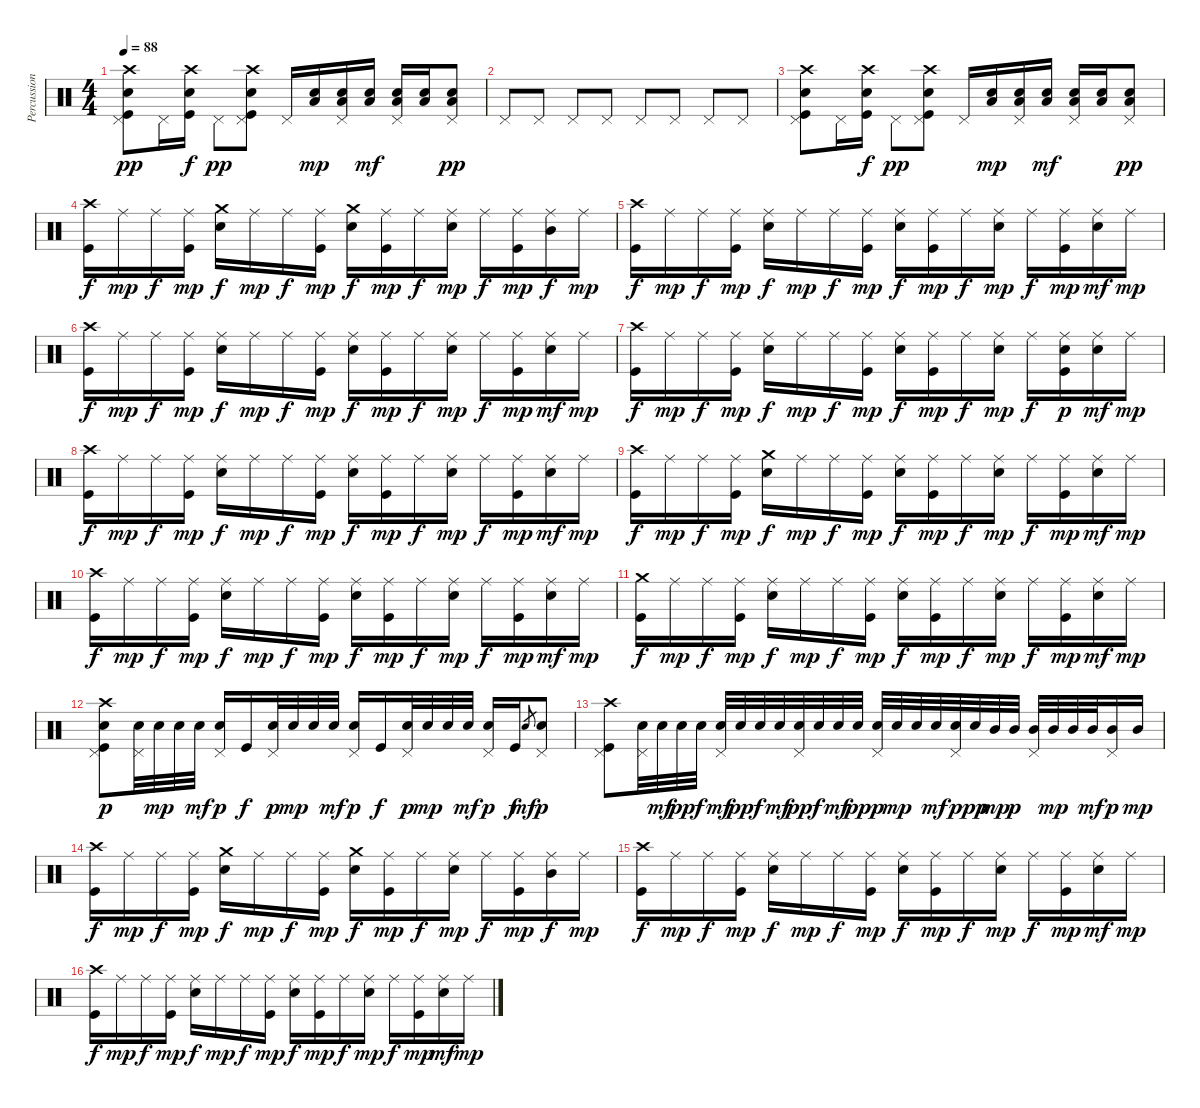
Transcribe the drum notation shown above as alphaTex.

\track ("Percussion" "Percussion") {instrument percussion}
\staff {score}
\articulation defaults
\ts (4 4)
\tempo 88
\clef neutral
\ks c
("Crash high (hit)" "Pedal Hi-Hat (hit)" "Snare (hit) 2" "Kick (hit)").8{dy pp} "Pedal Hi-Hat (hit)".16 ("Crash high (hit)" "Snare (hit) 2" "Kick (hit)").16{dy f} "Pedal Hi-Hat (hit)".8{dy pp} ("Crash high (hit)" "Pedal Hi-Hat (hit)" "Snare (hit) 2" "Kick (hit)").8 "Pedal Hi-Hat (hit)".16 ("Low Tom (hit)" "Snare (hit) 2").16{dy mp} ("Pedal Hi-Hat (hit)" "Low Tom (hit)" "Snare (hit) 2").16 ("Low Tom (hit)" "Snare (hit) 2").16{dy mf} ("Pedal Hi-Hat (hit)" "Low Tom (hit)" "Snare (hit) 2").16 ("Low Tom (hit)" "Snare (hit) 2").16 ("Pedal Hi-Hat (hit)" "Low Tom (hit)" "Snare (hit) 2").8{dy pp} |
"Pedal Hi-Hat (hit)".8 "Pedal Hi-Hat (hit)".8 "Pedal Hi-Hat (hit)".8 "Pedal Hi-Hat (hit)".8 "Pedal Hi-Hat (hit)".8 "Pedal Hi-Hat (hit)".8 "Pedal Hi-Hat (hit)".8 "Pedal Hi-Hat (hit)".8 |
("Crash high (hit)" "Pedal Hi-Hat (hit)" "Snare (hit) 2" "Kick (hit)").8 "Pedal Hi-Hat (hit)".16 ("Crash high (hit)" "Snare (hit) 2" "Kick (hit)").16{dy f} "Pedal Hi-Hat (hit)".8{dy pp} ("Crash high (hit)" "Pedal Hi-Hat (hit)" "Snare (hit) 2" "Kick (hit)").8 "Pedal Hi-Hat (hit)".16 ("Low Tom (hit)" "Snare (hit) 2").16{dy mp} ("Pedal Hi-Hat (hit)" "Low Tom (hit)" "Snare (hit) 2").16 ("Low Tom (hit)" "Snare (hit) 2").16{dy mf} ("Pedal Hi-Hat (hit)" "Low Tom (hit)" "Snare (hit) 2").16 ("Low Tom (hit)" "Snare (hit) 2").16 ("Pedal Hi-Hat (hit)" "Low Tom (hit)" "Snare (hit) 2").8{dy pp} |
("Crash high (hit)" "Kick (hit)").16{dy f} "Ride (middle)".16{dy mp} "Ride (middle)".16{dy f} ("Ride (middle)" "Kick (hit)").16{dy mp} ("Crash medium (hit)" "Snare (hit) 2").16{dy f} "Ride (middle)".16{dy mp} "Ride (middle)".16{dy f} ("Ride (middle)" "Kick (hit)").16{dy mp} ("Crash medium (hit)" "Snare (hit) 2").16{dy f} ("Ride (middle)" "Kick (hit)").16{dy mp} "Ride (middle)".16{dy f} ("Ride (middle)" "Snare (hit) 2").16{dy mp} "Ride (middle)".16{dy f} ("Ride (middle)" "Kick (hit)").16{dy mp} ("Ride (middle)" "Mid Tom (hit)").16{dy f} "Ride (middle)".16{dy mp} |
("Crash high (hit)" "Kick (hit)").16{dy f} "Ride (middle)".16{dy mp} "Ride (middle)".16{dy f} ("Ride (middle)" "Kick (hit)").16{dy mp} ("Ride (middle)" "Snare (hit) 2").16{dy f} "Ride (middle)".16{dy mp} "Ride (middle)".16{dy f} ("Ride (middle)" "Kick (hit)").16{dy mp} ("Ride (middle)" "Snare (hit) 2").16{dy f} ("Ride (middle)" "Kick (hit)").16{dy mp} "Ride (middle)".16{dy f} ("Ride (middle)" "Snare (hit) 2").16{dy mp} "Ride (middle)".16{dy f} ("Ride (middle)" "Kick (hit)").16{dy mp} ("Ride (middle)" "Snare (hit) 2").16{dy mf} "Ride (middle)".16{dy mp} |
("Crash high (hit)" "Kick (hit)").16{dy f} "Ride (middle)".16{dy mp} "Ride (middle)".16{dy f} ("Ride (middle)" "Kick (hit)").16{dy mp} ("Ride (middle)" "Snare (hit) 2").16{dy f} "Ride (middle)".16{dy mp} "Ride (middle)".16{dy f} ("Ride (middle)" "Kick (hit)").16{dy mp} ("Ride (middle)" "Snare (hit) 2").16{dy f} ("Ride (middle)" "Kick (hit)").16{dy mp} "Ride (middle)".16{dy f} ("Ride (middle)" "Snare (hit) 2").16{dy mp} "Ride (middle)".16{dy f} ("Ride (middle)" "Kick (hit)").16{dy mp} ("Ride (middle)" "Snare (hit) 2").16{dy mf} "Ride (middle)".16{dy mp} |
("Crash high (hit)" "Kick (hit)").16{dy f} "Ride (middle)".16{dy mp} "Ride (middle)".16{dy f} ("Ride (middle)" "Kick (hit)").16{dy mp} ("Ride (middle)" "Snare (hit) 2").16{dy f} "Ride (middle)".16{dy mp} "Ride (middle)".16{dy f} ("Ride (middle)" "Kick (hit)").16{dy mp} ("Ride (middle)" "Snare (hit) 2").16{dy f} ("Ride (middle)" "Kick (hit)").16{dy mp} "Ride (middle)".16{dy f} ("Ride (middle)" "Snare (hit) 2").16{dy mp} "Ride (middle)".16{dy f} ("Ride (middle)" "Snare (hit) 2" "Kick (hit)").16{dy p} ("Ride (middle)" "Snare (hit) 2").16{dy mf} "Ride (middle)".16{dy mp} |
("Crash high (hit)" "Kick (hit)").16{dy f} "Ride (middle)".16{dy mp} "Ride (middle)".16{dy f} ("Ride (middle)" "Kick (hit)").16{dy mp} ("Ride (middle)" "Snare (hit) 2").16{dy f} "Ride (middle)".16{dy mp} "Ride (middle)".16{dy f} ("Ride (middle)" "Kick (hit)").16{dy mp} ("Ride (middle)" "Snare (hit) 2").16{dy f} ("Ride (middle)" "Kick (hit)").16{dy mp} "Ride (middle)".16{dy f} ("Ride (middle)" "Snare (hit) 2").16{dy mp} "Ride (middle)".16{dy f} ("Ride (middle)" "Kick (hit)").16{dy mp} ("Ride (middle)" "Snare (hit) 2").16{dy mf} "Ride (middle)".16{dy mp} |
("Crash high (hit)" "Kick (hit)").16{dy f} "Ride (middle)".16{dy mp} "Ride (middle)".16{dy f} ("Ride (middle)" "Kick (hit)").16{dy mp} ("Crash medium (hit)" "Snare (hit) 2").16{dy f} "Ride (middle)".16{dy mp} "Ride (middle)".16{dy f} ("Ride (middle)" "Kick (hit)").16{dy mp} ("Ride (middle)" "Snare (hit) 2").16{dy f} ("Ride (middle)" "Kick (hit)").16{dy mp} "Ride (middle)".16{dy f} ("Ride (middle)" "Snare (hit) 2").16{dy mp} "Ride (middle)".16{dy f} ("Ride (middle)" "Kick (hit)").16{dy mp} ("Ride (middle)" "Snare (hit) 2").16{dy mf} "Ride (middle)".16{dy mp} |
("Crash high (hit)" "Kick (hit)").16{dy f} "Ride (middle)".16{dy mp} "Ride (middle)".16{dy f} ("Ride (middle)" "Kick (hit)").16{dy mp} ("Ride (middle)" "Snare (hit) 2").16{dy f} "Ride (middle)".16{dy mp} "Ride (middle)".16{dy f} ("Ride (middle)" "Kick (hit)").16{dy mp} ("Ride (middle)" "Snare (hit) 2").16{dy f} ("Ride (middle)" "Kick (hit)").16{dy mp} "Ride (middle)".16{dy f} ("Ride (middle)" "Snare (hit) 2").16{dy mp} "Ride (middle)".16{dy f} ("Ride (middle)" "Kick (hit)").16{dy mp} ("Ride (middle)" "Snare (hit) 2").16{dy mf} "Ride (middle)".16{dy mp} |
("Crash medium (hit)" "Kick (hit)").16{dy f} "Ride (middle)".16{dy mp} "Ride (middle)".16{dy f} ("Ride (middle)" "Kick (hit)").16{dy mp} ("Ride (middle)" "Snare (hit) 2").16{dy f} "Ride (middle)".16{dy mp} "Ride (middle)".16{dy f} ("Ride (middle)" "Kick (hit)").16{dy mp} ("Ride (middle)" "Snare (hit) 2").16{dy f} ("Ride (middle)" "Kick (hit)").16{dy mp} "Ride (middle)".16{dy f} ("Ride (middle)" "Snare (hit) 2").16{dy mp} "Ride (middle)".16{dy f} ("Ride (middle)" "Kick (hit)").16{dy mp} ("Ride (middle)" "Snare (hit) 2").16{dy mf} "Ride (middle)".16{dy mp} |
("Crash high (hit)" "Pedal Hi-Hat (hit)" "Snare (hit) 2" "Kick (hit)").8{dy p} ("Pedal Hi-Hat (hit)" "Snare (hit) 2").32 "Snare (hit) 2".32{dy mp} "Snare (hit) 2".32 "Snare (hit) 2".32{dy mf} ("Pedal Hi-Hat (hit)" "Snare (hit) 2").16{dy p} "Kick (hit)".16{dy f} ("Pedal Hi-Hat (hit)" "Snare (hit) 2").32{dy p} "Snare (hit) 2".32{dy mp} "Snare (hit) 2".32 "Snare (hit) 2".32{dy mf} ("Pedal Hi-Hat (hit)" "Snare (hit) 2").16{dy p} "Kick (hit)".16{dy f} ("Pedal Hi-Hat (hit)" "Snare (hit) 2").32{dy p} "Snare (hit) 2".32{dy mp} "Snare (hit) 2".32 "Snare (hit) 2".32{dy mf} ("Pedal Hi-Hat (hit)" "Snare (hit) 2").16{dy p} "Kick (hit)".16{dy f} "Snare (hit) 2".8{gr dy mf} ("Pedal Hi-Hat (hit)" "Snare (hit) 2").8{dy p} |
("Crash high (hit)" "Pedal Hi-Hat (hit)" "Kick (hit)").8 ("Pedal Hi-Hat (hit)" "Snare (hit) 2").32 "Snare (hit) 2".32{dy mf} "Snare (hit) 2".32{dy pp} "Snare (hit) 2".32{dy f} ("Pedal Hi-Hat (hit)" "Snare (hit) 2").32{dy mf} "Snare (hit) 2".32{dy pp} "Snare (hit) 2".32{dy f} "Snare (hit) 2".32{dy mf} ("Pedal Hi-Hat (hit)" "Snare (hit) 2").32{dy pp} "Snare (hit) 2".32{dy f} "Snare (hit) 2".32{dy mf} "Snare (hit) 2".32{dy pp} ("Pedal Hi-Hat (hit)" "Snare (hit) 2").32{dy p} "Snare (hit) 2".32{dy mp} "Snare (hit) 2".32 "Snare (hit) 2".32{dy mf} ("Pedal Hi-Hat (hit)" "Snare (hit) 2").32{dy p} "Snare (hit) 2".32{dy pp} "Mid Tom (hit)".32{dy mp} "Mid Tom (hit)".32{dy p} ("Pedal Hi-Hat (hit)" "Mid Tom (hit)").32 "Mid Tom (hit)".32{dy mp} "Mid Tom (hit)".32 "Mid Tom (hit)".32{dy mf} ("Pedal Hi-Hat (hit)" "Mid Tom (hit)").16{dy p} "Mid Tom (hit)".16{dy mp} |
("Crash high (hit)" "Kick (hit)").16{dy f} "Ride (middle)".16{dy mp} "Ride (middle)".16{dy f} ("Ride (middle)" "Kick (hit)").16{dy mp} ("Crash medium (hit)" "Snare (hit) 2").16{dy f} "Ride (middle)".16{dy mp} "Ride (middle)".16{dy f} ("Ride (middle)" "Kick (hit)").16{dy mp} ("Crash medium (hit)" "Snare (hit) 2").16{dy f} ("Ride (middle)" "Kick (hit)").16{dy mp} "Ride (middle)".16{dy f} ("Ride (middle)" "Snare (hit) 2").16{dy mp} "Ride (middle)".16{dy f} ("Ride (middle)" "Kick (hit)").16{dy mp} ("Ride (middle)" "Mid Tom (hit)").16{dy f} "Ride (middle)".16{dy mp} |
("Crash high (hit)" "Kick (hit)").16{dy f} "Ride (middle)".16{dy mp} "Ride (middle)".16{dy f} ("Ride (middle)" "Kick (hit)").16{dy mp} ("Ride (middle)" "Snare (hit) 2").16{dy f} "Ride (middle)".16{dy mp} "Ride (middle)".16{dy f} ("Ride (middle)" "Kick (hit)").16{dy mp} ("Ride (middle)" "Snare (hit) 2").16{dy f} ("Ride (middle)" "Kick (hit)").16{dy mp} "Ride (middle)".16{dy f} ("Ride (middle)" "Snare (hit) 2").16{dy mp} "Ride (middle)".16{dy f} ("Ride (middle)" "Kick (hit)").16{dy mp} ("Ride (middle)" "Snare (hit) 2").16{dy mf} "Ride (middle)".16{dy mp} |
("Crash high (hit)" "Kick (hit)").16{dy f} "Ride (middle)".16{dy mp} "Ride (middle)".16{dy f} ("Ride (middle)" "Kick (hit)").16{dy mp} ("Ride (middle)" "Snare (hit) 2").16{dy f} "Ride (middle)".16{dy mp} "Ride (middle)".16{dy f} ("Ride (middle)" "Kick (hit)").16{dy mp} ("Ride (middle)" "Snare (hit) 2").16{dy f} ("Ride (middle)" "Kick (hit)").16{dy mp} "Ride (middle)".16{dy f} ("Ride (middle)" "Snare (hit) 2").16{dy mp} "Ride (middle)".16{dy f} ("Ride (middle)" "Kick (hit)").16{dy mp} ("Ride (middle)" "Snare (hit) 2").16{dy mf} "Ride (middle)".16{dy mp}
